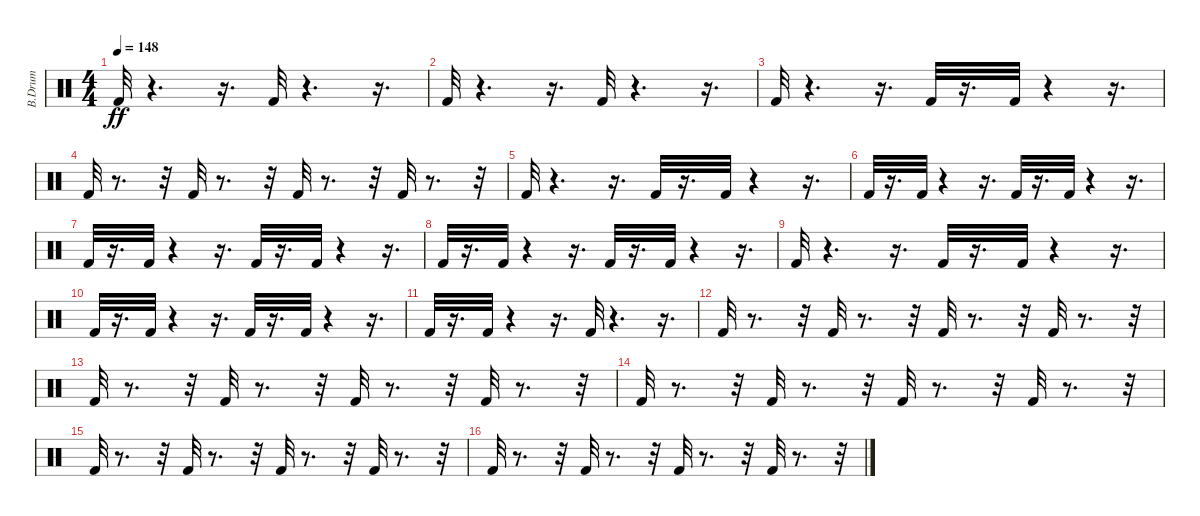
\track ("B.Drum                              " "B.Drum    ") {instrument percussion}
\staff {score}
\articulation defaults
\ts (4 4)
\tempo 148
\clef neutral
\ks c "Kick (hit) 2".32{dy ff}
r.4{d} r.16{d} "Kick (hit) 2".32 r.4{d} r.16{d} |
"Kick (hit) 2".32 r.4{d} r.16{d} "Kick (hit) 2".32 r.4{d} r.16{d} |
"Kick (hit) 2".32 r.4{d} r.16{d} "Kick (hit) 2".32 r.16{d} "Kick (hit) 2".32 r.4 r.16{d} |
"Kick (hit) 2".32 r.8{d} r.32 "Kick (hit) 2".32 r.8{d} r.32 "Kick (hit) 2".32 r.8{d} r.32 "Kick (hit) 2".32 r.8{d} r.32 |
"Kick (hit) 2".32 r.4{d} r.16{d} "Kick (hit) 2".32 r.16{d} "Kick (hit) 2".32 r.4 r.16{d} |
"Kick (hit) 2".32 r.16{d} "Kick (hit) 2".32 r.4 r.16{d} "Kick (hit) 2".32 r.16{d} "Kick (hit) 2".32 r.4 r.16{d} |
"Kick (hit) 2".32 r.16{d} "Kick (hit) 2".32 r.4 r.16{d} "Kick (hit) 2".32 r.16{d} "Kick (hit) 2".32 r.4 r.16{d} |
"Kick (hit) 2".32 r.16{d} "Kick (hit) 2".32 r.4 r.16{d} "Kick (hit) 2".32 r.16{d} "Kick (hit) 2".32 r.4 r.16{d} |
"Kick (hit) 2".32 r.4{d} r.16{d} "Kick (hit) 2".32 r.16{d} "Kick (hit) 2".32 r.4 r.16{d} |
"Kick (hit) 2".32 r.16{d} "Kick (hit) 2".32 r.4 r.16{d} "Kick (hit) 2".32 r.16{d} "Kick (hit) 2".32 r.4 r.16{d} |
"Kick (hit) 2".32 r.16{d} "Kick (hit) 2".32 r.4 r.16{d} "Kick (hit) 2".32 r.4{d} r.16{d} |
"Kick (hit) 2".32 r.8{d} r.32 "Kick (hit) 2".32 r.8{d} r.32 "Kick (hit) 2".32 r.8{d} r.32 "Kick (hit) 2".32 r.8{d} r.32 |
"Kick (hit) 2".32 r.8{d} r.32 "Kick (hit) 2".32 r.8{d} r.32 "Kick (hit) 2".32 r.8{d} r.32 "Kick (hit) 2".32 r.8{d} r.32 |
"Kick (hit) 2".32 r.8{d} r.32 "Kick (hit) 2".32 r.8{d} r.32 "Kick (hit) 2".32 r.8{d} r.32 "Kick (hit) 2".32 r.8{d} r.32 |
"Kick (hit) 2".32 r.8{d} r.32 "Kick (hit) 2".32 r.8{d} r.32 "Kick (hit) 2".32 r.8{d} r.32 "Kick (hit) 2".32 r.8{d} r.32 |
"Kick (hit) 2".32 r.8{d} r.32 "Kick (hit) 2".32 r.8{d} r.32 "Kick (hit) 2".32 r.8{d} r.32 "Kick (hit) 2".32 r.8{d} r.32
